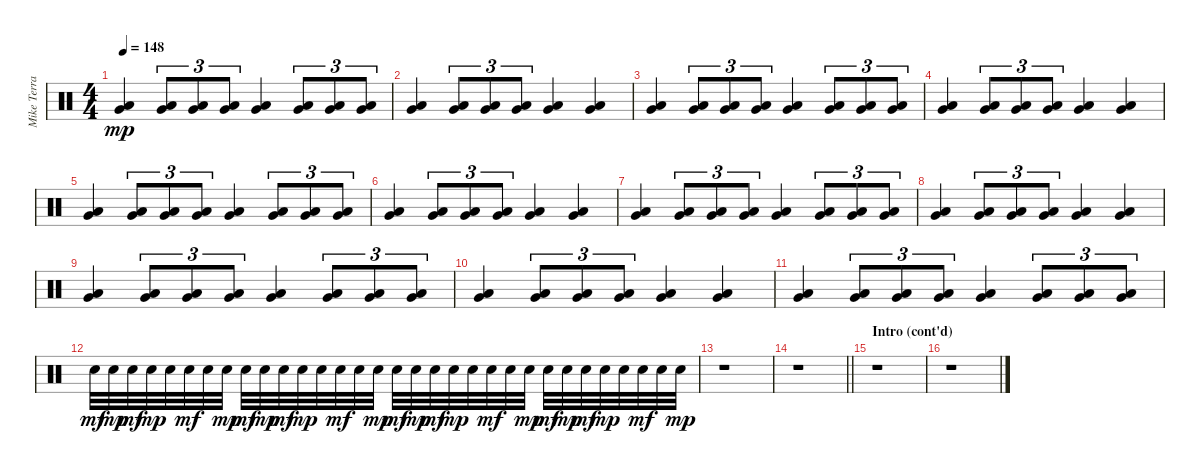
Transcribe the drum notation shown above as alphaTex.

\track ("Mike Terrana" "Mike Terra") {instrument percussion}
\staff {score}
\articulation defaults
\ts (4 4)
\tempo 148
\clef neutral
\ks c
("Low Tom (hit)" "Very Low Tom (hit)").4{dy mp} ("Low Tom (hit)" "Very Low Tom (hit)").8{tu (3 2)} ("Low Tom (hit)" "Very Low Tom (hit)").8{tu (3 2)} ("Low Tom (hit)" "Very Low Tom (hit)").8{tu (3 2)} ("Low Tom (hit)" "Very Low Tom (hit)").4 ("Low Tom (hit)" "Very Low Tom (hit)").8{tu (3 2)} ("Low Tom (hit)" "Very Low Tom (hit)").8{tu (3 2)} ("Low Tom (hit)" "Very Low Tom (hit)").8{tu (3 2)} |
("Low Tom (hit)" "Very Low Tom (hit)").4 ("Low Tom (hit)" "Very Low Tom (hit)").8{tu (3 2)} ("Low Tom (hit)" "Very Low Tom (hit)").8{tu (3 2)} ("Low Tom (hit)" "Very Low Tom (hit)").8{tu (3 2)} ("Low Tom (hit)" "Very Low Tom (hit)").4 ("Low Tom (hit)" "Very Low Tom (hit)").4 |
("Low Tom (hit)" "Very Low Tom (hit)").4 ("Low Tom (hit)" "Very Low Tom (hit)").8{tu (3 2)} ("Low Tom (hit)" "Very Low Tom (hit)").8{tu (3 2)} ("Low Tom (hit)" "Very Low Tom (hit)").8{tu (3 2)} ("Low Tom (hit)" "Very Low Tom (hit)").4 ("Low Tom (hit)" "Very Low Tom (hit)").8{tu (3 2)} ("Low Tom (hit)" "Very Low Tom (hit)").8{tu (3 2)} ("Low Tom (hit)" "Very Low Tom (hit)").8{tu (3 2)} |
("Low Tom (hit)" "Very Low Tom (hit)").4 ("Low Tom (hit)" "Very Low Tom (hit)").8{tu (3 2)} ("Low Tom (hit)" "Very Low Tom (hit)").8{tu (3 2)} ("Low Tom (hit)" "Very Low Tom (hit)").8{tu (3 2)} ("Low Tom (hit)" "Very Low Tom (hit)").4 ("Low Tom (hit)" "Very Low Tom (hit)").4 |
("Low Tom (hit)" "Very Low Tom (hit)").4 ("Low Tom (hit)" "Very Low Tom (hit)").8{tu (3 2)} ("Low Tom (hit)" "Very Low Tom (hit)").8{tu (3 2)} ("Low Tom (hit)" "Very Low Tom (hit)").8{tu (3 2)} ("Low Tom (hit)" "Very Low Tom (hit)").4 ("Low Tom (hit)" "Very Low Tom (hit)").8{tu (3 2)} ("Low Tom (hit)" "Very Low Tom (hit)").8{tu (3 2)} ("Low Tom (hit)" "Very Low Tom (hit)").8{tu (3 2)} |
("Low Tom (hit)" "Very Low Tom (hit)").4 ("Low Tom (hit)" "Very Low Tom (hit)").8{tu (3 2)} ("Low Tom (hit)" "Very Low Tom (hit)").8{tu (3 2)} ("Low Tom (hit)" "Very Low Tom (hit)").8{tu (3 2)} ("Low Tom (hit)" "Very Low Tom (hit)").4 ("Low Tom (hit)" "Very Low Tom (hit)").4 |
("Low Tom (hit)" "Very Low Tom (hit)").4 ("Low Tom (hit)" "Very Low Tom (hit)").8{tu (3 2)} ("Low Tom (hit)" "Very Low Tom (hit)").8{tu (3 2)} ("Low Tom (hit)" "Very Low Tom (hit)").8{tu (3 2)} ("Low Tom (hit)" "Very Low Tom (hit)").4 ("Low Tom (hit)" "Very Low Tom (hit)").8{tu (3 2)} ("Low Tom (hit)" "Very Low Tom (hit)").8{tu (3 2)} ("Low Tom (hit)" "Very Low Tom (hit)").8{tu (3 2)} |
("Low Tom (hit)" "Very Low Tom (hit)").4 ("Low Tom (hit)" "Very Low Tom (hit)").8{tu (3 2)} ("Low Tom (hit)" "Very Low Tom (hit)").8{tu (3 2)} ("Low Tom (hit)" "Very Low Tom (hit)").8{tu (3 2)} ("Low Tom (hit)" "Very Low Tom (hit)").4 ("Low Tom (hit)" "Very Low Tom (hit)").4 |
("Low Tom (hit)" "Very Low Tom (hit)").4 ("Low Tom (hit)" "Very Low Tom (hit)").8{tu (3 2)} ("Low Tom (hit)" "Very Low Tom (hit)").8{tu (3 2)} ("Low Tom (hit)" "Very Low Tom (hit)").8{tu (3 2)} ("Low Tom (hit)" "Very Low Tom (hit)").4 ("Low Tom (hit)" "Very Low Tom (hit)").8{tu (3 2)} ("Low Tom (hit)" "Very Low Tom (hit)").8{tu (3 2)} ("Low Tom (hit)" "Very Low Tom (hit)").8{tu (3 2)} |
("Low Tom (hit)" "Very Low Tom (hit)").4 ("Low Tom (hit)" "Very Low Tom (hit)").8{tu (3 2)} ("Low Tom (hit)" "Very Low Tom (hit)").8{tu (3 2)} ("Low Tom (hit)" "Very Low Tom (hit)").8{tu (3 2)} ("Low Tom (hit)" "Very Low Tom (hit)").4 ("Low Tom (hit)" "Very Low Tom (hit)").4 |
("Low Tom (hit)" "Very Low Tom (hit)").4 ("Low Tom (hit)" "Very Low Tom (hit)").8{tu (3 2)} ("Low Tom (hit)" "Very Low Tom (hit)").8{tu (3 2)} ("Low Tom (hit)" "Very Low Tom (hit)").8{tu (3 2)} ("Low Tom (hit)" "Very Low Tom (hit)").4 ("Low Tom (hit)" "Very Low Tom (hit)").8{tu (3 2)} ("Low Tom (hit)" "Very Low Tom (hit)").8{tu (3 2)} ("Low Tom (hit)" "Very Low Tom (hit)").8{tu (3 2)} |
"Electric Snare (hit)".32{dy mf} "Electric Snare (hit)".32{dy mp} "Electric Snare (hit)".32{dy mf} "Electric Snare (hit)".32{dy mp} "Electric Snare (hit)".32 "Electric Snare (hit)".32{dy mf} "Electric Snare (hit)".32 "Electric Snare (hit)".32{dy mp} "Electric Snare (hit)".32{dy mf} "Electric Snare (hit)".32{dy mp} "Electric Snare (hit)".32{dy mf} "Electric Snare (hit)".32{dy mp} "Electric Snare (hit)".32 "Electric Snare (hit)".32{dy mf} "Electric Snare (hit)".32 "Electric Snare (hit)".32{dy mp} "Electric Snare (hit)".32{dy mf} "Electric Snare (hit)".32{dy mp} "Electric Snare (hit)".32{dy mf} "Electric Snare (hit)".32{dy mp} "Electric Snare (hit)".32 "Electric Snare (hit)".32{dy mf} "Electric Snare (hit)".32 "Electric Snare (hit)".32{dy mp} "Electric Snare (hit)".32{dy mf} "Electric Snare (hit)".32{dy mp} "Electric Snare (hit)".32{dy mf} "Electric Snare (hit)".32{dy mp} "Electric Snare (hit)".32 "Electric Snare (hit)".32{dy mf} "Electric Snare (hit)".32 "Electric Snare (hit)".32{dy mp} |
r.1 |
\barLineRight lightlight
r.1 |
\section ("" "Intro (cont'd)")
r.1 |
r.1
